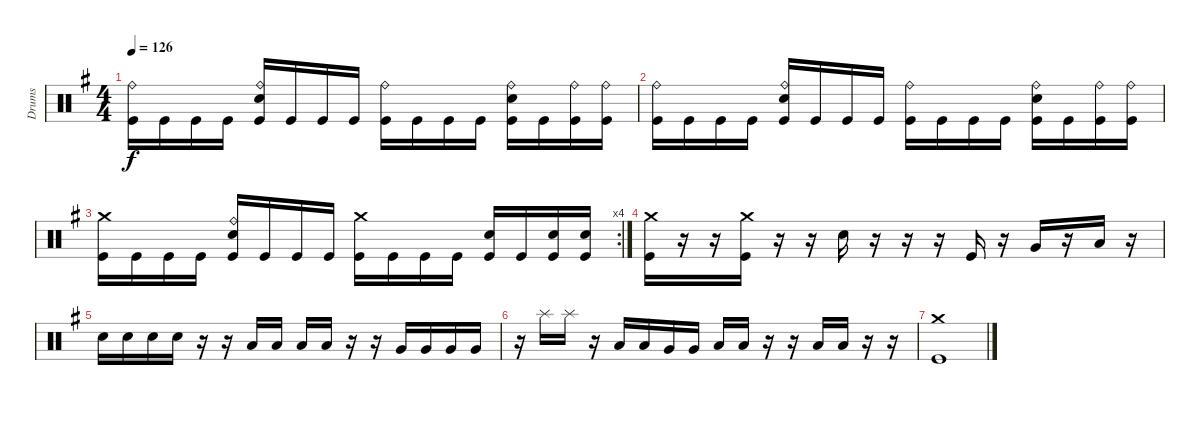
\track ("Drums" "Drums") {instrument percussion}
\staff {score}
\articulation defaults
\ts (4 4)
\tempo 126
\clef neutral
\ks g
("Kick (hit)" "Ride (bell)").16{dy f} "Kick (hit)".16 "Kick (hit)".16 "Kick (hit)".16 ("Kick (hit)" "Electric Snare (hit)" "Ride (bell)").16 "Kick (hit)".16 "Kick (hit)".16 "Kick (hit)".16 ("Kick (hit)" "Ride (bell)").16 "Kick (hit)".16 "Kick (hit)".16 "Kick (hit)".16 ("Kick (hit)" "Electric Snare (hit)" "Ride (bell)").16 "Kick (hit)".16 ("Kick (hit)" "Ride (bell)").16 ("Kick (hit)" "Ride (bell)").16 |
("Kick (hit)" "Ride (bell)").16 "Kick (hit)".16 "Kick (hit)".16 "Kick (hit)".16 ("Kick (hit)" "Electric Snare (hit)" "Ride (bell)").16 "Kick (hit)".16 "Kick (hit)".16 "Kick (hit)".16 ("Kick (hit)" "Ride (bell)").16 "Kick (hit)".16 "Kick (hit)".16 "Kick (hit)".16 ("Kick (hit)" "Electric Snare (hit)" "Ride (bell)").16 "Kick (hit)".16 ("Kick (hit)" "Ride (bell)").16 ("Kick (hit)" "Ride (bell)").16 |
\rc 4
("Kick (hit)" "Crash medium (hit)").16 "Kick (hit)".16 "Kick (hit)".16 "Kick (hit)".16 ("Kick (hit)" "Electric Snare (hit)" "Ride (bell)").16 "Kick (hit)".16 "Kick (hit)".16 "Kick (hit)".16 ("Kick (hit)" "Crash medium (hit)").16 "Kick (hit)".16 "Kick (hit)".16 "Kick (hit)".16 ("Kick (hit)" "Electric Snare (hit)").16 "Kick (hit)".16 ("Kick (hit)" "Electric Snare (hit)").16 ("Kick (hit)" "Electric Snare (hit)").16 |
("Kick (hit)" "Crash medium (hit)").16 r.16 r.16 ("Kick (hit)" "Crash medium (hit)").16 r.16 r.16 "Electric Snare (hit)".16 r.16 r.16 r.16 "Kick (hit)".16 r.16 "Very Low Tom (hit)".16 r.16 "Low Floor Tom (hit)".16 r.16 |
"Electric Snare (hit)".16 "Electric Snare (hit)".16 "Electric Snare (hit)".16 "Electric Snare (hit)".16 r.16 r.16 "Low Tom (hit)".16 "Low Tom (hit)".16 "Low Tom (hit)".16 "Low Tom (hit)".16 r.16 r.16 "Very Low Tom (hit)".16 "Very Low Tom (hit)".16 "Very Low Tom (hit)".16 "Very Low Tom (hit)".16 |
r.16 "Splash (hit)".16 "Splash (hit)".16 r.16 "Low Tom (hit)".16 "Low Tom (hit)".16 "Very Low Tom (hit)".16 "Very Low Tom (hit)".16 "Low Floor Tom (hit)".16 "Low Floor Tom (hit)".16 r.16 r.16 "Low Floor Tom (hit)".16 "Low Floor Tom (hit)".16 r.16 r.16 |
("Kick (hit)" "Crash medium (hit)").1
